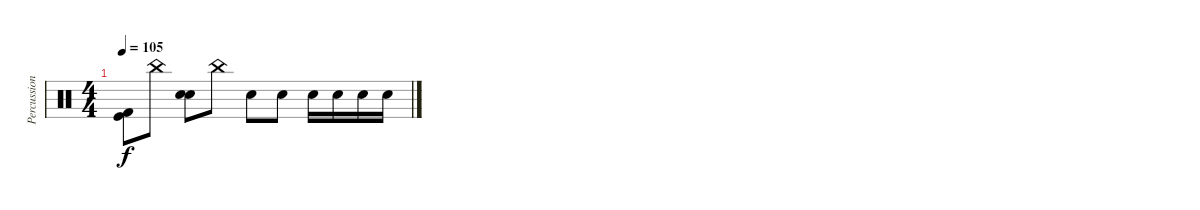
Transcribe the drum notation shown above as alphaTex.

\track ("Percussions" "Percussion") {instrument percussion}
\staff {score}
\articulation defaults
\ts (4 4)
\tempo 105
\clef neutral
\ks c
("Kick (hit) 2" "Kick (hit)").8{dy f} "China (hit)".8 ("Electric Snare (hit)" "Electric Snare (hit)").8 "China (hit)".8 "Electric Snare (hit)".8 "Electric Snare (hit)".8 "Electric Snare (hit)".16 "Electric Snare (hit)".16 "Electric Snare (hit)".16 "Electric Snare (hit)".16
